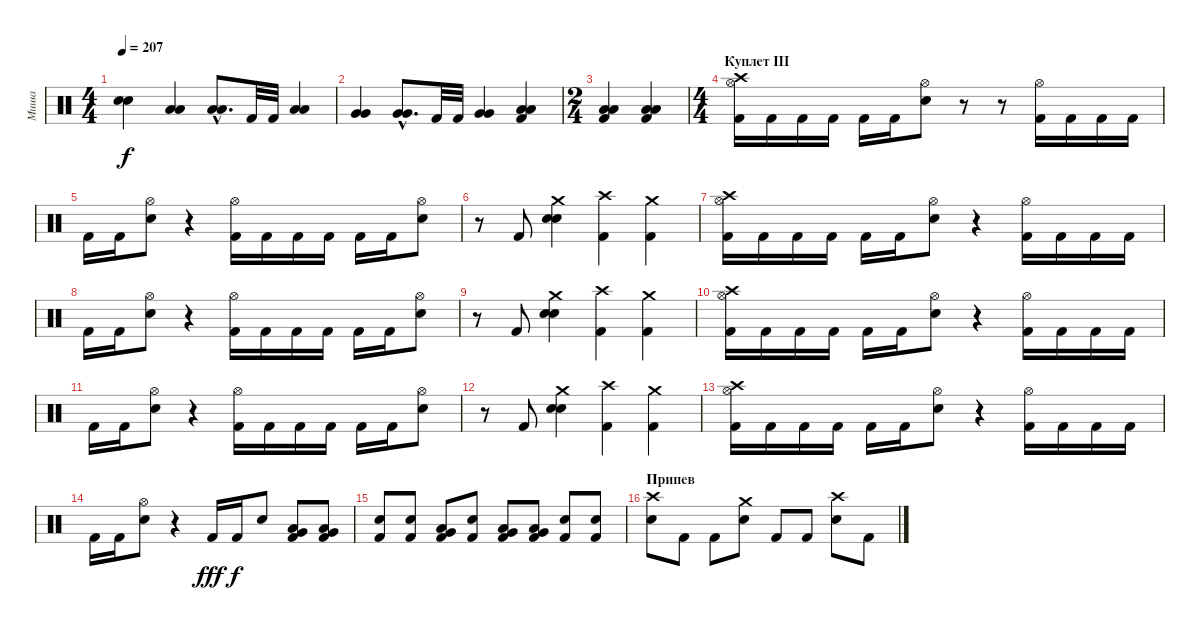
\track ("Миша" "Миша") {instrument percussion}
\staff {score}
\articulation defaults
\ts (4 4)
\tempo 207
\clef neutral
\ks c
("Snare (hit) 2" "Snare (hit) 2").4{dy f} ("Low Tom (hit)" "Low Tom (hit)").4 ("Low Tom (hit)"{hac} "Low Tom (hit)"{hac}).8{d} "Kick (hit) 2".32 "Kick (hit) 2".32 ("Low Tom (hit)" "Low Tom (hit)").4 |
("Very Low Tom (hit)" "Very Low Tom (hit)").4 ("Very Low Tom (hit)"{hac} "Very Low Tom (hit)"{hac}).8{d} "Kick (hit) 2".32 "Kick (hit) 2".32 ("Very Low Tom (hit)" "Very Low Tom (hit)").4 ("Kick (hit) 2" "Low Floor Tom (hit)" "Low Floor Tom (hit)").4 |
\ts (2 4)
("Kick (hit) 2" "Low Floor Tom (hit)" "Low Floor Tom (hit)").4 ("Kick (hit) 2" "Low Floor Tom (hit)" "Low Floor Tom (hit)").4 |
\ts (4 4)
\section ("" "Куплет III")
("Kick (hit) 2" "Hi-Hat (open)" "Crash high (hit)").16 "Kick (hit) 2".16 "Kick (hit) 2".16 "Kick (hit) 2".16 "Kick (hit) 2".16 "Kick (hit) 2".16 ("Snare (hit) 2" "Hi-Hat (open)").8 r.8 r.8 ("Kick (hit) 2" "Hi-Hat (open)").16 "Kick (hit) 2".16 "Kick (hit) 2".16 "Kick (hit) 2".16 |
"Kick (hit) 2".16 "Kick (hit) 2".16 ("Snare (hit) 2" "Hi-Hat (open)").8 r.4 ("Kick (hit) 2" "Hi-Hat (open)").16 "Kick (hit) 2".16 "Kick (hit) 2".16 "Kick (hit) 2".16 "Kick (hit) 2".16 "Kick (hit) 2".16 ("Snare (hit) 2" "Hi-Hat (open)").8 |
r.8 "Kick (hit) 2".8 ("Snare (hit) 2" "Snare (hit) 2" "Crash medium (hit)").4 ("Kick (hit) 2" "Crash high (hit)").4 ("Kick (hit) 2" "Crash medium (hit)").4 |
("Kick (hit) 2" "Hi-Hat (open)" "Crash high (hit)").16 "Kick (hit) 2".16 "Kick (hit) 2".16 "Kick (hit) 2".16 "Kick (hit) 2".16 "Kick (hit) 2".16 ("Snare (hit) 2" "Hi-Hat (open)").8 r.4 ("Kick (hit) 2" "Hi-Hat (open)").16 "Kick (hit) 2".16 "Kick (hit) 2".16 "Kick (hit) 2".16 |
"Kick (hit) 2".16 "Kick (hit) 2".16 ("Snare (hit) 2" "Hi-Hat (open)").8 r.4 ("Kick (hit) 2" "Hi-Hat (open)").16 "Kick (hit) 2".16 "Kick (hit) 2".16 "Kick (hit) 2".16 "Kick (hit) 2".16 "Kick (hit) 2".16 ("Snare (hit) 2" "Hi-Hat (open)").8 |
r.8 "Kick (hit) 2".8 ("Snare (hit) 2" "Snare (hit) 2" "Crash medium (hit)").4 ("Kick (hit) 2" "Crash high (hit)").4 ("Kick (hit) 2" "Crash medium (hit)").4 |
("Kick (hit) 2" "Hi-Hat (open)" "Crash high (hit)").16 "Kick (hit) 2".16 "Kick (hit) 2".16 "Kick (hit) 2".16 "Kick (hit) 2".16 "Kick (hit) 2".16 ("Snare (hit) 2" "Hi-Hat (open)").8 r.4 ("Kick (hit) 2" "Hi-Hat (open)").16 "Kick (hit) 2".16 "Kick (hit) 2".16 "Kick (hit) 2".16 |
"Kick (hit) 2".16 "Kick (hit) 2".16 ("Snare (hit) 2" "Hi-Hat (open)").8 r.4 ("Kick (hit) 2" "Hi-Hat (open)").16 "Kick (hit) 2".16 "Kick (hit) 2".16 "Kick (hit) 2".16 "Kick (hit) 2".16 "Kick (hit) 2".16 ("Snare (hit) 2" "Hi-Hat (open)").8 |
r.8 "Kick (hit) 2".8 ("Snare (hit) 2" "Snare (hit) 2" "Crash medium (hit)").4 ("Kick (hit) 2" "Crash high (hit)").4 ("Kick (hit) 2" "Crash medium (hit)").4 |
("Kick (hit) 2" "Hi-Hat (open)" "Crash high (hit)").16 "Kick (hit) 2".16 "Kick (hit) 2".16 "Kick (hit) 2".16 "Kick (hit) 2".16 "Kick (hit) 2".16 ("Snare (hit) 2" "Hi-Hat (open)").8 r.4 ("Kick (hit) 2" "Hi-Hat (open)").16 "Kick (hit) 2".16 "Kick (hit) 2".16 "Kick (hit) 2".16 |
"Kick (hit) 2".16 "Kick (hit) 2".16 ("Snare (hit) 2" "Hi-Hat (open)").8 r.4 "Kick (hit) 2".16{dy fff} "Kick (hit) 2".16{dy f} "Snare (hit) 2".8 ("Kick (hit) 2" "Low Tom (hit)" "Very Low Tom (hit)").8 ("Kick (hit) 2" "Low Tom (hit)" "Very Low Tom (hit)").8 |
("Kick (hit) 2" "Snare (hit) 2").8 ("Kick (hit) 2" "Snare (hit) 2").8 ("Kick (hit) 2" "Low Tom (hit)" "Very Low Tom (hit)").8 ("Kick (hit) 2" "Snare (hit) 2").8 ("Kick (hit) 2" "Low Tom (hit)" "Very Low Tom (hit)").8 ("Kick (hit) 2" "Low Tom (hit)" "Very Low Tom (hit)").8 ("Kick (hit) 2" "Snare (hit) 2").8 ("Kick (hit) 2" "Snare (hit) 2").8 |
\section ("" "Припев")
("Snare (hit) 2" "Crash high (hit)").8 "Kick (hit) 2".8 "Kick (hit) 2".8 ("Snare (hit) 2" "Crash medium (hit)").8 "Kick (hit) 2".8 "Kick (hit) 2".8 ("Snare (hit) 2" "Crash high (hit)").8 "Kick (hit) 2".8
